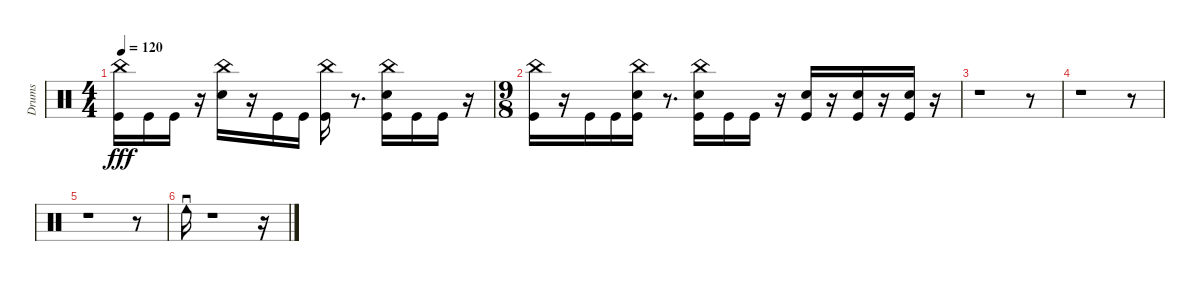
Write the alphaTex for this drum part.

\track ("Drums" "Drums") {instrument percussion}
\staff {score}
\articulation defaults
\ts (4 4)
\tempo 120
\clef neutral
\ks c
("China (hit)" "Kick (hit)").16{dy fff} "Kick (hit)".16 "Kick (hit)".16 r.16 ("China (hit)" "Snare (hit) 2").16 r.16 "Kick (hit)".16 "Kick (hit)".16 ("China (hit)" "Kick (hit)").16 r.8{d} ("China (hit)" "Kick (hit)" "Snare (hit) 2").16 "Kick (hit)".16 "Kick (hit)".16 r.16 |
\ts (9 8)
("Kick (hit)" "China (hit)").16 r.16 "Kick (hit)".16 "Kick (hit)".16 ("China (hit)" "Kick (hit)" "Snare (hit) 2").16 r.8{d} ("China (hit)" "Kick (hit)" "Snare (hit) 2").16 "Kick (hit)".16 "Kick (hit)".16{volume 10} r.16 ("Snare (hit) 2" "Kick (hit)").16{volume 12} r.16 ("Snare (hit) 2" "Kick (hit)").16{volume 14} r.16 ("Kick (hit)" "Snare (hit) 2").16{volume 16} r.16 |
r.1 r.8 |
r.1 r.8 |
r.1 r.8 |
"Tambourine (roll)".16{volume 0} r.1 r.16
